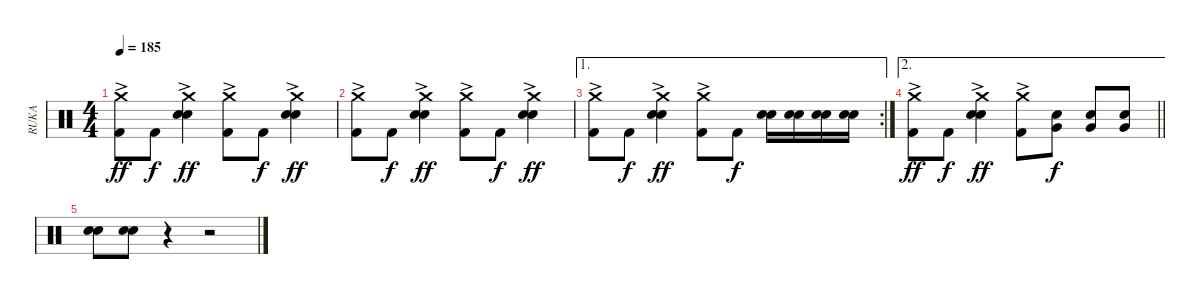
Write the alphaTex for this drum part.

\track ("RUKA" "RUKA") {instrument percussion}
\staff {score}
\articulation defaults
\ts (4 4)
\tempo 185
\clef neutral
\ks c
("Crash medium (hit)"{ac} "Kick (hit) 2").8{dy ff} "Kick (hit) 2".8{dy f} ("Crash medium (hit)"{ac} "Snare (hit) 2" "Electric Snare (hit)").4{dy ff} ("Crash medium (hit)"{ac} "Kick (hit) 2").8 "Kick (hit) 2".8{dy f} ("Crash medium (hit)"{ac} "Snare (hit) 2" "Electric Snare (hit)").4{dy ff} |
("Crash medium (hit)"{ac} "Kick (hit) 2").8 "Kick (hit) 2".8{dy f} ("Crash medium (hit)"{ac} "Snare (hit) 2" "Electric Snare (hit)").4{dy ff} ("Crash medium (hit)"{ac} "Kick (hit) 2").8 "Kick (hit) 2".8{dy f} ("Crash medium (hit)"{ac} "Snare (hit) 2" "Electric Snare (hit)").4{dy ff} |
\ae 1
\rc 2
("Crash medium (hit)"{ac} "Kick (hit) 2").8 "Kick (hit) 2".8{dy f} ("Crash medium (hit)"{ac} "Snare (hit) 2" "Electric Snare (hit)").4{dy ff} ("Crash medium (hit)"{ac} "Kick (hit) 2").8 "Kick (hit) 2".8{dy f} ("Snare (hit) 2" "Electric Snare (hit)").16 ("Snare (hit) 2" "Electric Snare (hit)").16 ("Snare (hit) 2" "Electric Snare (hit)").16 ("Snare (hit) 2" "Electric Snare (hit)").16 |
\ae 2
\barLineRight lightlight
("Crash medium (hit)"{ac} "Kick (hit) 2").8{dy ff} "Kick (hit) 2".8{dy f} ("Crash medium (hit)"{ac} "Snare (hit) 2" "Electric Snare (hit)").4{dy ff} ("Crash medium (hit)"{ac} "Kick (hit) 2").8 ("Very Low Tom (hit)" "Snare (hit) 2").8{dy f} ("Very Low Tom (hit)" "Snare (hit) 2").8 ("Very Low Tom (hit)" "Snare (hit) 2").8 |
("Snare (hit) 2" "Electric Snare (hit)").8 ("Snare (hit) 2" "Electric Snare (hit)").8 r.4 r.2
